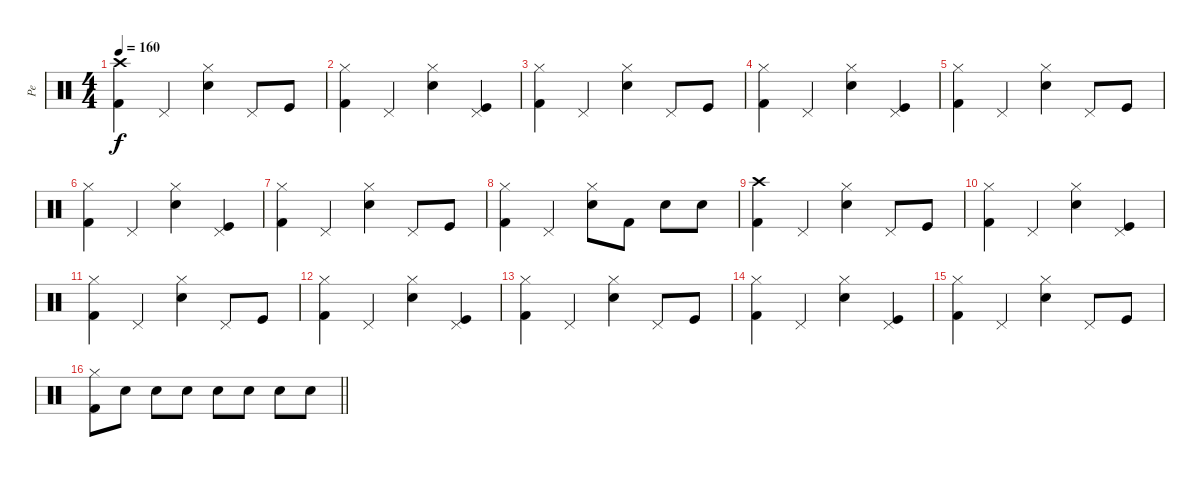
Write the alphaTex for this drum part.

\track ("Pe" "Pe") {instrument percussion}
\staff {score}
\articulation defaults
\ts (4 4)
\tempo 160
\clef neutral
\ks c
("Kick (hit) 2" "Crash high (hit)").4{dy f} "Pedal Hi-Hat (hit)".4 ("Electric Snare (hit)" "Hi-Hat (closed)").4 "Pedal Hi-Hat (hit)".8 "Kick (hit)".8 |
("Kick (hit) 2" "Hi-Hat (closed)").4 "Pedal Hi-Hat (hit)".4 ("Electric Snare (hit)" "Hi-Hat (closed)").4 ("Kick (hit)" "Pedal Hi-Hat (hit)").4 |
("Kick (hit) 2" "Hi-Hat (closed)").4 "Pedal Hi-Hat (hit)".4 ("Electric Snare (hit)" "Hi-Hat (closed)").4 "Pedal Hi-Hat (hit)".8 "Kick (hit)".8 |
("Kick (hit) 2" "Hi-Hat (closed)").4 "Pedal Hi-Hat (hit)".4 ("Electric Snare (hit)" "Hi-Hat (closed)").4 ("Kick (hit)" "Pedal Hi-Hat (hit)").4 |
("Kick (hit) 2" "Hi-Hat (closed)").4 "Pedal Hi-Hat (hit)".4 ("Electric Snare (hit)" "Hi-Hat (closed)").4 "Pedal Hi-Hat (hit)".8 "Kick (hit)".8 |
("Kick (hit) 2" "Hi-Hat (closed)").4 "Pedal Hi-Hat (hit)".4 ("Electric Snare (hit)" "Hi-Hat (closed)").4 ("Kick (hit)" "Pedal Hi-Hat (hit)").4 |
("Kick (hit) 2" "Hi-Hat (closed)").4 "Pedal Hi-Hat (hit)".4 ("Electric Snare (hit)" "Hi-Hat (closed)").4 "Pedal Hi-Hat (hit)".8 "Kick (hit)".8 |
("Kick (hit) 2" "Hi-Hat (closed)").4 "Pedal Hi-Hat (hit)".4 ("Electric Snare (hit)" "Hi-Hat (closed)").8 "Kick (hit) 2".8 "Electric Snare (hit)".8 "Electric Snare (hit)".8 |
("Kick (hit) 2" "Crash high (hit)").4 "Pedal Hi-Hat (hit)".4 ("Electric Snare (hit)" "Hi-Hat (closed)").4 "Pedal Hi-Hat (hit)".8 "Kick (hit)".8 |
("Kick (hit) 2" "Hi-Hat (closed)").4 "Pedal Hi-Hat (hit)".4 ("Electric Snare (hit)" "Hi-Hat (closed)").4 ("Kick (hit)" "Pedal Hi-Hat (hit)").4 |
("Kick (hit) 2" "Hi-Hat (closed)").4 "Pedal Hi-Hat (hit)".4 ("Electric Snare (hit)" "Hi-Hat (closed)").4 "Pedal Hi-Hat (hit)".8 "Kick (hit)".8 |
("Kick (hit) 2" "Hi-Hat (closed)").4 "Pedal Hi-Hat (hit)".4 ("Electric Snare (hit)" "Hi-Hat (closed)").4 ("Kick (hit)" "Pedal Hi-Hat (hit)").4 |
("Kick (hit) 2" "Hi-Hat (closed)").4 "Pedal Hi-Hat (hit)".4 ("Electric Snare (hit)" "Hi-Hat (closed)").4 "Pedal Hi-Hat (hit)".8 "Kick (hit)".8 |
("Kick (hit) 2" "Hi-Hat (closed)").4 "Pedal Hi-Hat (hit)".4 ("Electric Snare (hit)" "Hi-Hat (closed)").4 ("Kick (hit)" "Pedal Hi-Hat (hit)").4 |
("Kick (hit) 2" "Hi-Hat (closed)").4 "Pedal Hi-Hat (hit)".4 ("Electric Snare (hit)" "Hi-Hat (closed)").4 "Pedal Hi-Hat (hit)".8 "Kick (hit)".8 |
\barLineRight lightlight
("Kick (hit) 2" "Hi-Hat (closed)").8 "Electric Snare (hit)".8 "Electric Snare (hit)".8 "Electric Snare (hit)".8 "Electric Snare (hit)".8 "Electric Snare (hit)".8 "Electric Snare (hit)".8 "Electric Snare (hit)".8
